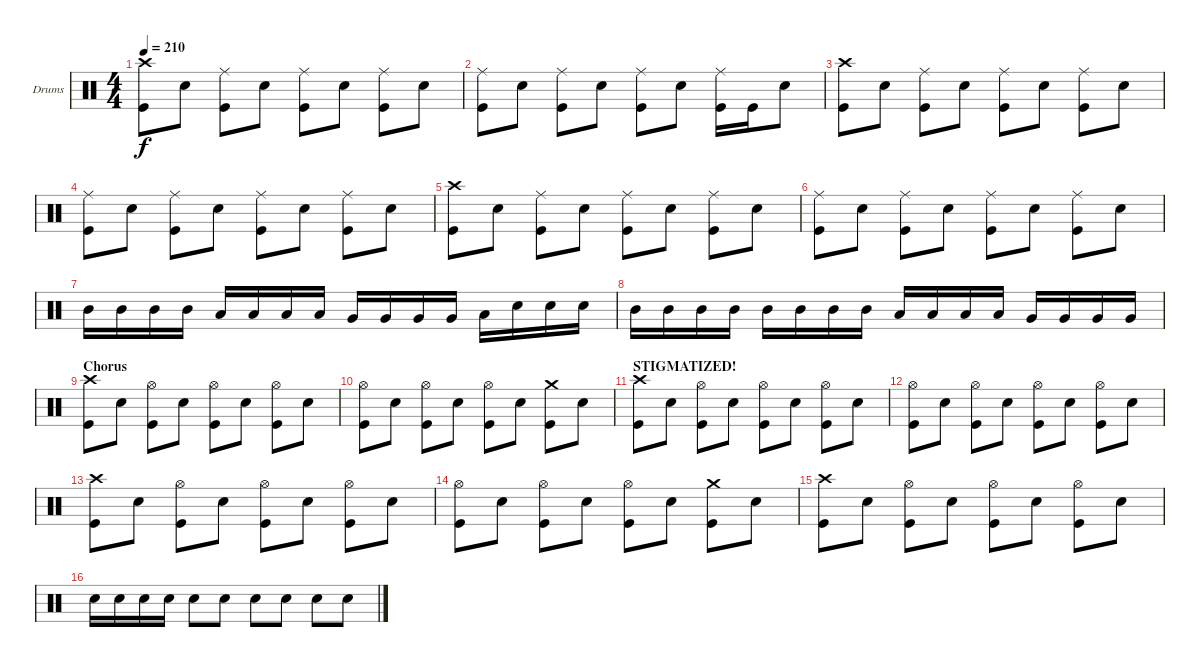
\defaultSystemsLayout 4
\bracketExtendMode groupsimilarinstruments
\firstSystemTrackNameOrientation horizontal
\otherSystemsTrackNameOrientation horizontal
\track ("Markus Freiwald" "Drums") {instrument percussion}
\staff {score}
\articulation defaults
\ts (4 4)
\tempo 210
\clef neutral
\scale
0.5
\ks c
("Crash high (hit)" "Kick (hit)").8{dy f} "Snare (hit) 2".8 ("Ride (middle)" "Kick (hit)").8 "Snare (hit) 2".8 ("Ride (middle)" "Kick (hit)").8 "Snare (hit) 2".8 ("Ride (middle)" "Kick (hit)").8 "Snare (hit) 2".8 |
\scale
0.5 ("Ride (middle)" "Kick (hit)").8 "Snare (hit) 2".8 ("Ride (middle)" "Kick (hit)").8 "Snare (hit) 2".8 ("Ride (middle)" "Kick (hit)").8 "Snare (hit) 2".8 ("Ride (middle)" "Kick (hit)").16 "Kick (hit)".16 "Snare (hit) 2".8 |
\scale
0.5 ("Crash high (hit)" "Kick (hit)").8 "Snare (hit) 2".8 ("Ride (middle)" "Kick (hit)").8 "Snare (hit) 2".8 ("Ride (middle)" "Kick (hit)").8 "Snare (hit) 2".8 ("Ride (middle)" "Kick (hit)").8 "Snare (hit) 2".8 |
\scale
0.5 ("Ride (middle)" "Kick (hit)").8 "Snare (hit) 2".8 ("Ride (middle)" "Kick (hit)").8 "Snare (hit) 2".8 ("Ride (middle)" "Kick (hit)").8 "Snare (hit) 2".8 ("Ride (middle)" "Kick (hit)").8 "Snare (hit) 2".8 |
\scale
0.5 ("Crash high (hit)" "Kick (hit)").8 "Snare (hit) 2".8 ("Ride (middle)" "Kick (hit)").8 "Snare (hit) 2".8 ("Ride (middle)" "Kick (hit)").8 "Snare (hit) 2".8 ("Ride (middle)" "Kick (hit)").8 "Snare (hit) 2".8 |
\scale
0.5 ("Ride (middle)" "Kick (hit)").8 "Snare (hit) 2".8 ("Ride (middle)" "Kick (hit)").8 "Snare (hit) 2".8 ("Ride (middle)" "Kick (hit)").8 "Snare (hit) 2".8 ("Ride (middle)" "Kick (hit)").8 "Snare (hit) 2".8 |
\scale
0.5 "Mid Tom (hit)".16 "Mid Tom (hit)".16 "Mid Tom (hit)".16 "Mid Tom (hit)".16 "Low Tom (hit)".16 "Low Tom (hit)".16 "Low Tom (hit)".16 "Low Tom (hit)".16 "Very Low Tom (hit)".16 "Very Low Tom (hit)".16 "Very Low Tom (hit)".16 "Very Low Tom (hit)".16 "Low Tom (hit)".16 "Snare (hit) 2".16 "Snare (hit) 2".16 "Snare (hit) 2".16 |
\scale
0.5 "Mid Tom (hit)".16 "Mid Tom (hit)".16 "Mid Tom (hit)".16 "Mid Tom (hit)".16 "Mid Tom (hit)".16 "Mid Tom (hit)".16 "Mid Tom (hit)".16 "Mid Tom (hit)".16 "Low Tom (hit)".16 "Low Tom (hit)".16 "Low Tom (hit)".16 "Low Tom (hit)".16 "Very Low Tom (hit)".16 "Very Low Tom (hit)".16 "Very Low Tom (hit)".16 "Very Low Tom (hit)".16 |
\section ("" "Chorus")
\scale
0.5 ("Crash high (hit)" "Kick (hit)").8 "Snare (hit) 2".8 ("Kick (hit)" "Hi-Hat (open)").8 "Snare (hit) 2".8 ("Kick (hit)" "Hi-Hat (open)").8 "Snare (hit) 2".8 ("Kick (hit)" "Hi-Hat (open)").8 "Snare (hit) 2".8 |
\scale
0.5 ("Kick (hit)" "Hi-Hat (open)").8 "Snare (hit) 2".8 ("Kick (hit)" "Hi-Hat (open)").8 "Snare (hit) 2".8 ("Kick (hit)" "Hi-Hat (open)").8 "Snare (hit) 2".8 ("Kick (hit)" "Crash medium (hit)").8 "Snare (hit) 2".8 |
\section ("" "STIGMATIZED!")
\scale
0.5 ("Crash high (hit)" "Kick (hit)").8 "Snare (hit) 2".8 ("Kick (hit)" "Hi-Hat (open)").8 "Snare (hit) 2".8 ("Kick (hit)" "Hi-Hat (open)").8 "Snare (hit) 2".8 ("Kick (hit)" "Hi-Hat (open)").8 "Snare (hit) 2".8 |
\scale
0.5 ("Kick (hit)" "Hi-Hat (open)").8 "Snare (hit) 2".8 ("Kick (hit)" "Hi-Hat (open)").8 "Snare (hit) 2".8 ("Kick (hit)" "Hi-Hat (open)").8 "Snare (hit) 2".8 ("Kick (hit)" "Hi-Hat (open)").8 "Snare (hit) 2".8 |
\scale
0.5 ("Crash high (hit)" "Kick (hit)").8 "Snare (hit) 2".8 ("Kick (hit)" "Hi-Hat (open)").8 "Snare (hit) 2".8 ("Kick (hit)" "Hi-Hat (open)").8 "Snare (hit) 2".8 ("Kick (hit)" "Hi-Hat (open)").8 "Snare (hit) 2".8 |
\scale
0.5 ("Kick (hit)" "Hi-Hat (open)").8 "Snare (hit) 2".8 ("Kick (hit)" "Hi-Hat (open)").8 "Snare (hit) 2".8 ("Kick (hit)" "Hi-Hat (open)").8 "Snare (hit) 2".8 ("Kick (hit)" "Crash medium (hit)").8 "Snare (hit) 2".8 |
\scale
0.5 ("Crash high (hit)" "Kick (hit)").8 "Snare (hit) 2".8 ("Kick (hit)" "Hi-Hat (open)").8 "Snare (hit) 2".8 ("Kick (hit)" "Hi-Hat (open)").8 "Snare (hit) 2".8 ("Kick (hit)" "Hi-Hat (open)").8 "Snare (hit) 2".8 |
\scale
0.5 "Snare (hit) 2".16 "Snare (hit) 2".16 "Snare (hit) 2".16 "Snare (hit) 2".16 "Snare (hit) 2".8 "Snare (hit) 2".8 "Snare (hit) 2".8 "Snare (hit) 2".8 "Snare (hit) 2".8 "Snare (hit) 2".8
